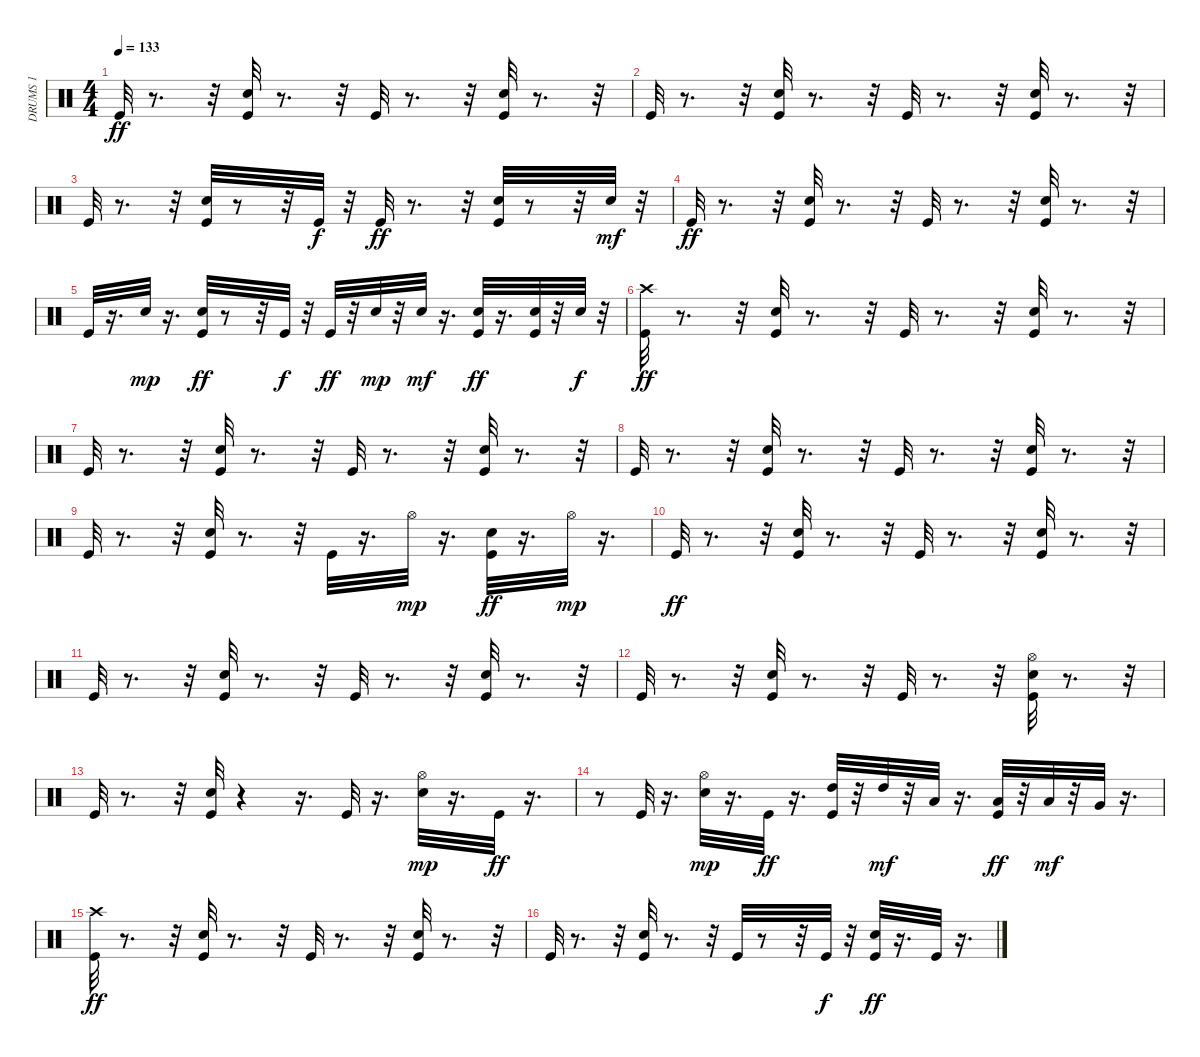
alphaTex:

\track ("DRUMS 1                             " "DRUMS 1   ") {instrument percussion}
\staff {score}
\articulation defaults
\ts (4 4)
\tempo 133
\clef neutral
\ks c "Kick (hit)".32{dy ff}
r.8{d} r.32 ("Electric Snare (hit)" "Kick (hit)").32 r.8{d} r.32 "Kick (hit)".32 r.8{d} r.32 ("Electric Snare (hit)" "Kick (hit)").32 r.8{d} r.32 |
"Kick (hit)".32 r.8{d} r.32 ("Electric Snare (hit)" "Kick (hit)").32 r.8{d} r.32 "Kick (hit)".32 r.8{d} r.32 ("Electric Snare (hit)" "Kick (hit)").32 r.8{d} r.32 |
"Kick (hit)".32 r.8{d} r.32 ("Electric Snare (hit)" "Kick (hit)").32 r.8 r.32 "Kick (hit)".32{dy f} r.32 "Kick (hit)".32{dy ff} r.8{d} r.32 ("Electric Snare (hit)" "Kick (hit)").32 r.8 r.32 "Electric Snare (hit)".32{dy mf} r.32 |
"Kick (hit)".32{dy ff} r.8{d} r.32 ("Electric Snare (hit)" "Kick (hit)").32 r.8{d} r.32 "Kick (hit)".32 r.8{d} r.32 ("Electric Snare (hit)" "Kick (hit)").32 r.8{d} r.32 |
"Kick (hit)".32 r.16{d} "Electric Snare (hit)".32{dy mp} r.16{d} ("Electric Snare (hit)" "Kick (hit)").32{dy ff} r.8 r.32 "Kick (hit)".32{dy f} r.32 "Kick (hit)".32{dy ff} r.32 "Electric Snare (hit)".32{dy mp} r.32 "Electric Snare (hit)".32{dy mf} r.16{d} ("Electric Snare (hit)" "Kick (hit)").32{dy ff} r.16{d} ("Electric Snare (hit)" "Kick (hit)").32 r.32 "Electric Snare (hit)".32{dy f} r.32 |
("Crash high (hit)" "Kick (hit)").32{dy ff} r.8{d} r.32 ("Electric Snare (hit)" "Kick (hit)").32 r.8{d} r.32 "Kick (hit)".32 r.8{d} r.32 ("Electric Snare (hit)" "Kick (hit)").32 r.8{d} r.32 |
"Kick (hit)".32 r.8{d} r.32 ("Electric Snare (hit)" "Kick (hit)").32 r.8{d} r.32 "Kick (hit)".32 r.8{d} r.32 ("Electric Snare (hit)" "Kick (hit)").32 r.8{d} r.32 |
"Kick (hit)".32 r.8{d} r.32 ("Electric Snare (hit)" "Kick (hit)").32 r.8{d} r.32 "Kick (hit)".32 r.8{d} r.32 ("Electric Snare (hit)" "Kick (hit)").32 r.8{d} r.32 |
"Kick (hit)".32 r.8{d} r.32 ("Electric Snare (hit)" "Kick (hit)").32 r.8{d} r.32 "Kick (hit)".32 r.16{d} "Hi-Hat (open)".32{dy mp} r.16{d} ("Electric Snare (hit)" "Kick (hit)").32{dy ff} r.16{d} "Hi-Hat (open)".32{dy mp} r.16{d} |
"Kick (hit)".32{dy ff} r.8{d} r.32 ("Electric Snare (hit)" "Kick (hit)").32 r.8{d} r.32 "Kick (hit)".32 r.8{d} r.32 ("Electric Snare (hit)" "Kick (hit)").32 r.8{d} r.32 |
"Kick (hit)".32 r.8{d} r.32 ("Electric Snare (hit)" "Kick (hit)").32 r.8{d} r.32 "Kick (hit)".32 r.8{d} r.32 ("Electric Snare (hit)" "Kick (hit)").32 r.8{d} r.32 |
"Kick (hit)".32 r.8{d} r.32 ("Electric Snare (hit)" "Kick (hit)").32 r.8{d} r.32 "Kick (hit)".32 r.8{d} r.32 ("Hi-Hat (open)" "Electric Snare (hit)" "Kick (hit)").32 r.8{d} r.32 |
"Kick (hit)".32 r.8{d} r.32 ("Electric Snare (hit)" "Kick (hit)").32 r.4 r.16{d} "Kick (hit)".32 r.16{d} ("Hi-Hat (open)" "Electric Snare (hit)").32{dy mp} r.16{d} "Kick (hit)".32{dy ff} r.16{d} |
r.8 "Kick (hit)".32 r.16{d} ("Hi-Hat (open)" "Electric Snare (hit)").32{dy mp} r.16{d} "Kick (hit)".32{dy ff} r.16{d} ("High Tom (hit)" "Kick (hit)").32 r.32 "High Tom (hit)".32{dy mf} r.32 "Low Tom (hit)".32 r.16{d} ("Low Tom (hit)" "Kick (hit)").32{dy ff} r.32 "Low Tom (hit)".32{dy mf} r.32 "Very Low Tom (hit)".32 r.16{d} |
("Crash high (hit)" "Kick (hit)").32{dy ff} r.8{d} r.32 ("Electric Snare (hit)" "Kick (hit)").32 r.8{d} r.32 "Kick (hit)".32 r.8{d} r.32 ("Electric Snare (hit)" "Kick (hit)").32 r.8{d} r.32 |
"Kick (hit)".32 r.8{d} r.32 ("Electric Snare (hit)" "Kick (hit)").32 r.8{d} r.32 "Kick (hit)".32 r.8 r.32 "Kick (hit)".32{dy f} r.32 ("Electric Snare (hit)" "Kick (hit)").32{dy ff} r.16{d} "Kick (hit)".32 r.16{d}
